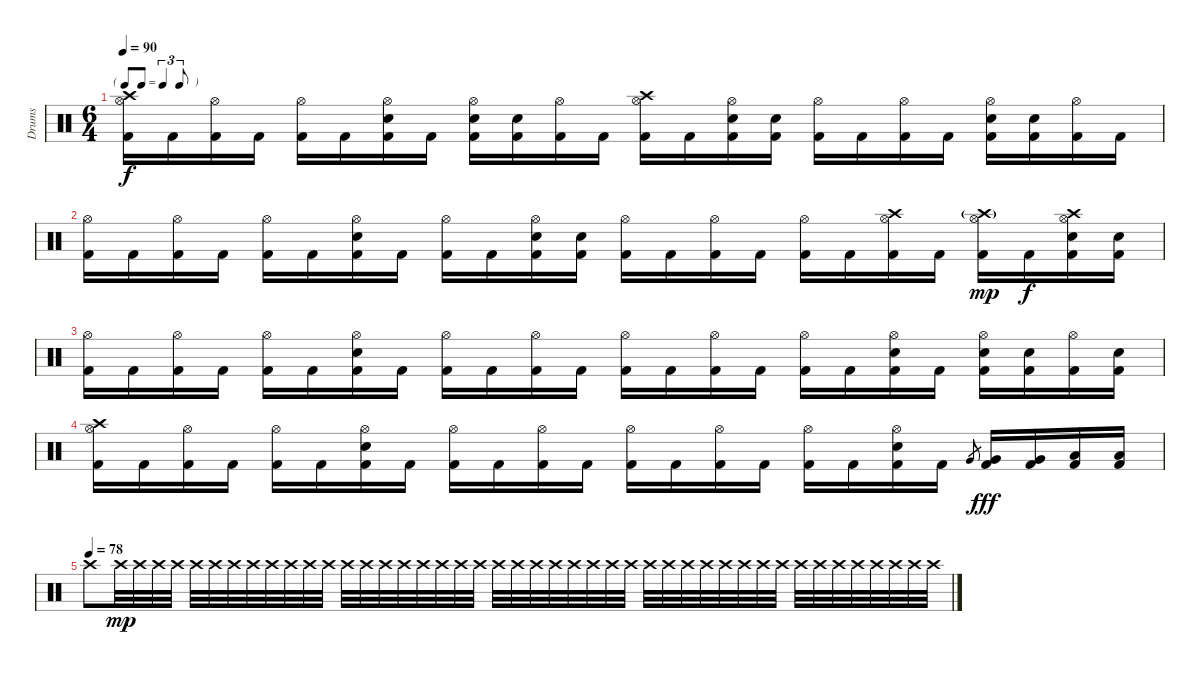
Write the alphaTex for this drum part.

\track ("Drums" "Drums") {instrument percussion}
\staff {score}
\articulation defaults
\ts (6 4)
\tf triplet8th
\tempo 90
\clef neutral
\ks c
("Crash high (hit)" "Hi-Hat (open)" "Kick (hit) 2").16{dy f} "Kick (hit) 2".16 ("Hi-Hat (open)" "Kick (hit) 2").16 "Kick (hit) 2".16 ("Hi-Hat (open)" "Kick (hit) 2").16 "Kick (hit) 2".16 ("Hi-Hat (open)" "Snare (hit) 2" "Kick (hit) 2").16 "Kick (hit) 2".16 ("Hi-Hat (open)" "Snare (hit) 2" "Kick (hit) 2").16 ("Snare (hit) 2" "Kick (hit) 2").16 ("Hi-Hat (open)" "Kick (hit) 2").16 "Kick (hit) 2".16 ("Crash high (hit)" "Hi-Hat (open)" "Kick (hit) 2").16 "Kick (hit) 2".16 ("Hi-Hat (open)" "Snare (hit) 2" "Kick (hit) 2").16 ("Snare (hit) 2" "Kick (hit) 2").16 ("Hi-Hat (open)" "Kick (hit) 2").16 "Kick (hit) 2".16 ("Hi-Hat (open)" "Kick (hit) 2").16 "Kick (hit) 2".16 ("Hi-Hat (open)" "Snare (hit) 2" "Kick (hit) 2").16 ("Snare (hit) 2" "Kick (hit) 2").16 ("Hi-Hat (open)" "Kick (hit) 2").16 "Kick (hit) 2".16 |
("Hi-Hat (open)" "Kick (hit) 2").16 "Kick (hit) 2".16 ("Hi-Hat (open)" "Kick (hit) 2").16 "Kick (hit) 2".16 ("Hi-Hat (open)" "Kick (hit) 2").16 "Kick (hit) 2".16 ("Hi-Hat (open)" "Snare (hit) 2" "Kick (hit) 2").16 "Kick (hit) 2".16 ("Hi-Hat (open)" "Kick (hit) 2").16 "Kick (hit) 2".16 ("Hi-Hat (open)" "Snare (hit) 2" "Kick (hit) 2").16 ("Snare (hit) 2" "Kick (hit) 2").16 ("Hi-Hat (open)" "Kick (hit) 2").16 "Kick (hit) 2".16 ("Hi-Hat (open)" "Kick (hit) 2").16 "Kick (hit) 2".16 ("Hi-Hat (open)" "Kick (hit) 2").16 "Kick (hit) 2".16 ("Crash high (hit)" "Hi-Hat (open)" "Kick (hit) 2").16 "Kick (hit) 2".16 ("Crash high (hit)"{g} "Hi-Hat (open)" "Kick (hit) 2").16{dy mp} "Kick (hit) 2".16{dy f} ("Crash high (hit)" "Hi-Hat (open)" "Snare (hit) 2" "Kick (hit) 2").16 ("Snare (hit) 2" "Kick (hit) 2").16 |
("Hi-Hat (open)" "Kick (hit) 2").16 "Kick (hit) 2".16 ("Hi-Hat (open)" "Kick (hit) 2").16 "Kick (hit) 2".16 ("Hi-Hat (open)" "Kick (hit) 2").16 "Kick (hit) 2".16 ("Hi-Hat (open)" "Snare (hit) 2" "Kick (hit) 2").16 "Kick (hit) 2".16 ("Hi-Hat (open)" "Kick (hit) 2").16 "Kick (hit) 2".16 ("Hi-Hat (open)" "Kick (hit) 2").16 "Kick (hit) 2".16 ("Hi-Hat (open)" "Kick (hit) 2").16 "Kick (hit) 2".16 ("Hi-Hat (open)" "Kick (hit) 2").16 "Kick (hit) 2".16 ("Hi-Hat (open)" "Kick (hit) 2").16 "Kick (hit) 2".16 ("Hi-Hat (open)" "Snare (hit) 2" "Kick (hit) 2").16 "Kick (hit) 2".16 ("Hi-Hat (open)" "Snare (hit) 2" "Kick (hit) 2").16 ("Snare (hit) 2" "Kick (hit) 2").16 ("Hi-Hat (open)" "Kick (hit) 2").16 ("Snare (hit) 2" "Kick (hit) 2").16 |
("Crash high (hit)" "Hi-Hat (open)" "Kick (hit) 2").16 "Kick (hit) 2".16 ("Hi-Hat (open)" "Kick (hit) 2").16 "Kick (hit) 2".16 ("Hi-Hat (open)" "Kick (hit) 2").16 "Kick (hit) 2".16 ("Hi-Hat (open)" "Snare (hit) 2" "Kick (hit) 2").16 "Kick (hit) 2".16 ("Hi-Hat (open)" "Kick (hit) 2").16 "Kick (hit) 2".16 ("Hi-Hat (open)" "Kick (hit) 2").16 "Kick (hit) 2".16 ("Hi-Hat (open)" "Kick (hit) 2").16 "Kick (hit) 2".16 ("Hi-Hat (open)" "Kick (hit) 2").16 "Kick (hit) 2".16 ("Hi-Hat (open)" "Kick (hit) 2").16 "Kick (hit) 2".16 ("Hi-Hat (open)" "Snare (hit) 2" "Kick (hit) 2").16 "Kick (hit) 2".16 "Very Low Tom (hit)".8{gr} ("Very Low Tom (hit)" "Kick (hit) 2").16{dy fff} ("Very Low Tom (hit)" "Kick (hit) 2").16 ("Low Floor Tom (hit)" "Kick (hit) 2").16 ("Low Floor Tom (hit)" "Kick (hit) 2").16 |
\tempo (78)
"Crash high (hit)".8{volume 0} "Crash high (hit)".32{dy mp} "Crash high (hit)".32 "Crash high (hit)".32 "Crash high (hit)".32 "Crash high (hit)".32 "Crash high (hit)".32 "Crash high (hit)".32 "Crash high (hit)".32 "Crash high (hit)".32 "Crash high (hit)".32 "Crash high (hit)".32 "Crash high (hit)".32 "Crash high (hit)".32 "Crash high (hit)".32 "Crash high (hit)".32 "Crash high (hit)".32 "Crash high (hit)".32 "Crash high (hit)".32 "Crash high (hit)".32 "Crash high (hit)".32 "Crash high (hit)".32 "Crash high (hit)".32 "Crash high (hit)".32 "Crash high (hit)".32 "Crash high (hit)".32 "Crash high (hit)".32 "Crash high (hit)".32 "Crash high (hit)".32 "Crash high (hit)".32 "Crash high (hit)".32 "Crash high (hit)".32 "Crash high (hit)".32 "Crash high (hit)".32 "Crash high (hit)".32 "Crash high (hit)".32 "Crash high (hit)".32 "Crash high (hit)".32 "Crash high (hit)".32 "Crash high (hit)".32 "Crash high (hit)".32 "Crash high (hit)".32 "Crash high (hit)".32 "Crash high (hit)".32 "Crash high (hit)".32
